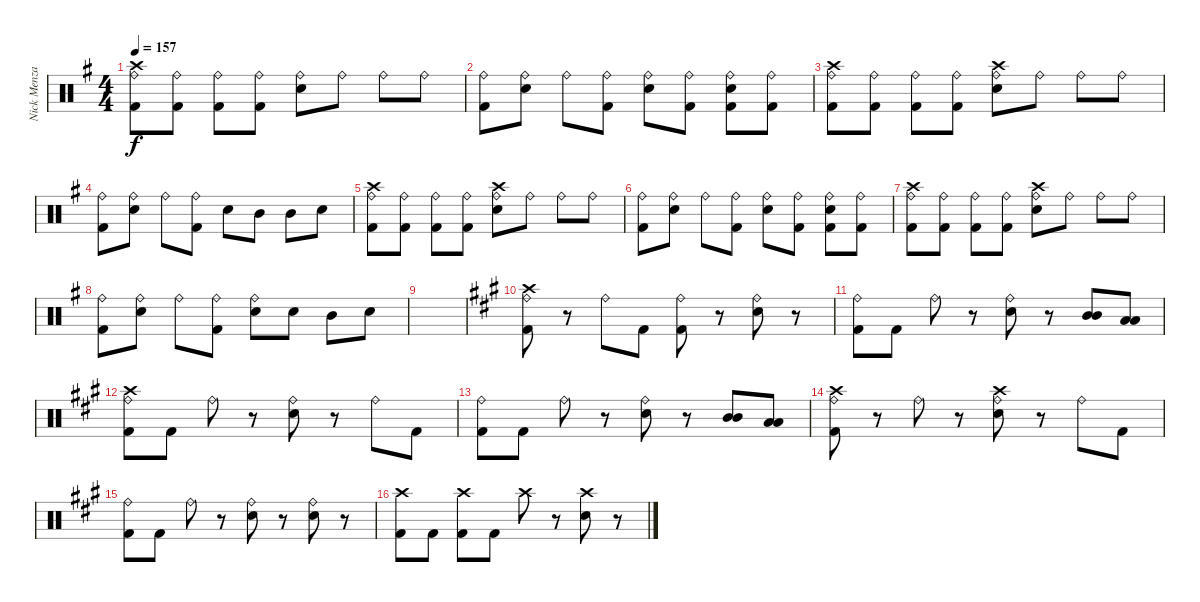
\track ("Nick Menza" "Nick Menza") {instrument percussion}
\staff {score}
\articulation defaults
\ts (4 4)
\tempo 157
\clef neutral
\ks g
("Ride (bell)" "Kick (hit) 2" "Crash high (hit)").8{dy f} ("Ride (bell)" "Kick (hit) 2").8 ("Ride (bell)" "Kick (hit) 2").8 ("Ride (bell)" "Kick (hit) 2").8 ("Ride (bell)" "Snare (hit) 2").8 "Ride (bell)".8 "Ride (bell)".8 "Ride (bell)".8 |
("Ride (bell)" "Kick (hit) 2").8 ("Ride (bell)" "Snare (hit) 2").8 "Ride (bell)".8 ("Ride (bell)" "Kick (hit) 2").8 ("Ride (bell)" "Snare (hit) 2").8 ("Ride (bell)" "Kick (hit) 2").8 ("Ride (bell)" "Kick (hit) 2" "Snare (hit) 2").8 ("Ride (bell)" "Kick (hit) 2").8 |
("Ride (bell)" "Kick (hit) 2" "Crash high (hit)").8 ("Ride (bell)" "Kick (hit) 2").8 ("Ride (bell)" "Kick (hit) 2").8 ("Ride (bell)" "Kick (hit) 2").8 ("Ride (bell)" "Snare (hit) 2" "Crash high (hit)").8 "Ride (bell)".8 "Ride (bell)".8 "Ride (bell)".8 |
("Ride (bell)" "Kick (hit) 2").8 ("Ride (bell)" "Snare (hit) 2").8 "Ride (bell)".8 ("Ride (bell)" "Kick (hit) 2").8 "Snare (hit) 2".8 "Mid Tom (hit)".8 "Mid Tom (hit)".8 "Snare (hit) 2".8 |
("Ride (bell)" "Kick (hit) 2" "Crash high (hit)").8 ("Ride (bell)" "Kick (hit) 2").8 ("Ride (bell)" "Kick (hit) 2").8 ("Ride (bell)" "Kick (hit) 2").8 ("Ride (bell)" "Snare (hit) 2" "Crash high (hit)").8 "Ride (bell)".8 "Ride (bell)".8 "Ride (bell)".8 |
("Ride (bell)" "Kick (hit) 2").8 ("Ride (bell)" "Snare (hit) 2").8 "Ride (bell)".8 ("Ride (bell)" "Kick (hit) 2").8 ("Ride (bell)" "Snare (hit) 2").8 ("Ride (bell)" "Kick (hit) 2").8 ("Ride (bell)" "Kick (hit) 2" "Snare (hit) 2").8 ("Ride (bell)" "Kick (hit) 2").8 |
("Ride (bell)" "Kick (hit) 2" "Crash high (hit)").8 ("Ride (bell)" "Kick (hit) 2").8 ("Ride (bell)" "Kick (hit) 2").8 ("Ride (bell)" "Kick (hit) 2").8 ("Ride (bell)" "Snare (hit) 2" "Crash high (hit)").8 "Ride (bell)".8 "Ride (bell)".8 "Ride (bell)".8 |
("Ride (bell)" "Kick (hit) 2").8 ("Ride (bell)" "Snare (hit) 2").8 "Ride (bell)".8 ("Ride (bell)" "Kick (hit) 2").8 ("Ride (bell)" "Snare (hit) 2").8 "Snare (hit) 2".8 "Mid Tom (hit)".8 "Snare (hit) 2".8 |
|
\ks a
("Ride (bell)" "Kick (hit) 2" "Crash high (hit)").8 r.8 "Ride (bell)".8 "Kick (hit) 2".8 ("Ride (bell)" "Kick (hit) 2").8 r.8 ("Ride (bell)" "Snare (hit) 2").8 r.8 |
("Ride (bell)" "Kick (hit) 2").8 "Kick (hit) 2".8 "Ride (bell)".8 r.8 ("Ride (bell)" "Snare (hit) 2").8 r.8 ("Mid Tom (hit)" "Mid Tom (hit)").8 ("Low Tom (hit)" "Low Tom (hit)").8 |
("Ride (bell)" "Kick (hit) 2" "Crash high (hit)").8 "Kick (hit) 2".8 "Ride (bell)".8 r.8 ("Ride (bell)" "Snare (hit) 2").8 r.8 "Ride (bell)".8 "Kick (hit) 2".8 |
("Ride (bell)" "Kick (hit) 2").8 "Kick (hit) 2".8 "Ride (bell)".8 r.8 ("Ride (bell)" "Snare (hit) 2").8 r.8 ("Mid Tom (hit)" "Mid Tom (hit)").8 ("Low Tom (hit)" "Low Tom (hit)").8 |
("Ride (bell)" "Crash high (hit)" "Kick (hit) 2").8 r.8 "Ride (bell)".8 r.8 ("Ride (bell)" "Snare (hit) 2" "Crash high (hit)").8 r.8 "Ride (bell)".8 "Kick (hit) 2".8 |
("Ride (bell)" "Kick (hit) 2").8 "Kick (hit) 2".8 "Ride (bell)".8 r.8 ("Ride (bell)" "Snare (hit) 2").8 r.8 ("Ride (bell)" "Snare (hit) 2").8 r.8 |
("Crash high (hit)" "Kick (hit) 2").8 "Kick (hit) 2".8 ("Crash high (hit)" "Kick (hit) 2").8 "Kick (hit) 2".8 "Crash high (hit)".8 r.8 ("Crash high (hit)" "Snare (hit) 2").8 r.8
